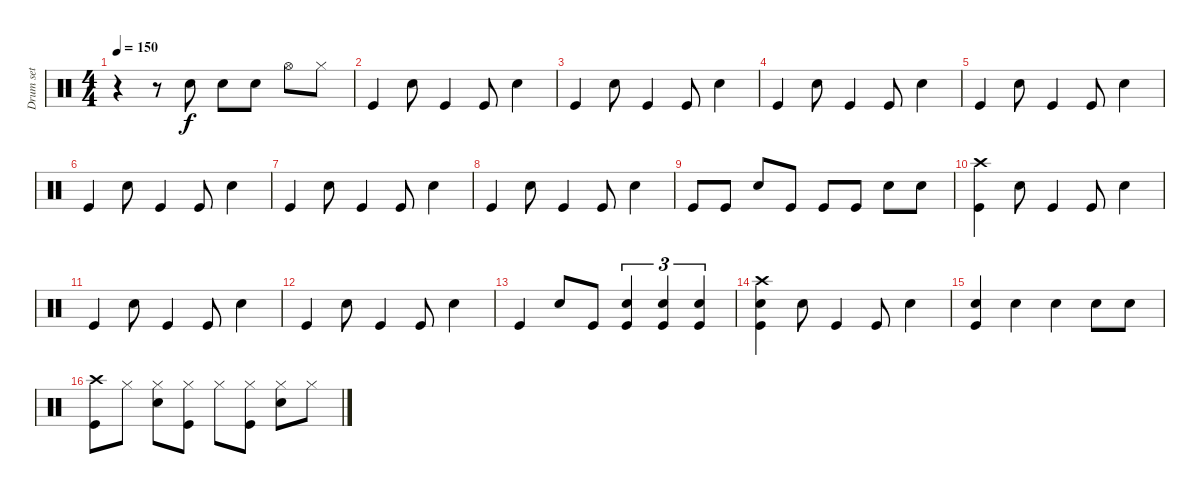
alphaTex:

\track ("Drum set" "Drum set") {instrument percussion}
\staff {score}
\articulation defaults
\ts (4 4)
\tempo 150
\clef neutral
\ks c
r.4{dy f} r.8 "Snare (hit) 2".8 "Snare (hit) 2".8 "Snare (hit) 2".8 "Hi-Hat (open)".8 "Hi-Hat (closed)".8 |
"Kick (hit)".4 "Snare (hit) 2".8 "Kick (hit)".4 "Kick (hit)".8 "Snare (hit) 2".4 |
"Kick (hit)".4 "Snare (hit) 2".8 "Kick (hit)".4 "Kick (hit)".8 "Snare (hit) 2".4 |
"Kick (hit)".4 "Snare (hit) 2".8 "Kick (hit)".4 "Kick (hit)".8 "Snare (hit) 2".4 |
"Kick (hit)".4 "Snare (hit) 2".8 "Kick (hit)".4 "Kick (hit)".8 "Snare (hit) 2".4 |
"Kick (hit)".4 "Snare (hit) 2".8 "Kick (hit)".4 "Kick (hit)".8 "Snare (hit) 2".4 |
"Kick (hit)".4 "Snare (hit) 2".8 "Kick (hit)".4 "Kick (hit)".8 "Snare (hit) 2".4 |
"Kick (hit)".4 "Snare (hit) 2".8 "Kick (hit)".4 "Kick (hit)".8 "Snare (hit) 2".4 |
"Kick (hit)".8 "Kick (hit)".8 "Snare (hit) 2".8 "Kick (hit)".8 "Kick (hit)".8 "Kick (hit)".8 "Snare (hit) 2".8 "Snare (hit) 2".8 |
("Crash high (hit)" "Kick (hit)").4 "Snare (hit) 2".8 "Kick (hit)".4 "Kick (hit)".8 "Snare (hit) 2".4 |
"Kick (hit)".4 "Snare (hit) 2".8 "Kick (hit)".4 "Kick (hit)".8 "Snare (hit) 2".4 |
"Kick (hit)".4 "Snare (hit) 2".8 "Kick (hit)".4 "Kick (hit)".8 "Snare (hit) 2".4 |
"Kick (hit)".4 "Snare (hit) 2".8 "Kick (hit)".8 ("Snare (hit) 2" "Kick (hit)").4{tu (3 2)} ("Snare (hit) 2" "Kick (hit)").4{tu (3 2)} ("Snare (hit) 2" "Kick (hit)").4{tu (3 2)} |
("Crash high (hit)" "Snare (hit) 2" "Kick (hit)").4 "Snare (hit) 2".8 "Kick (hit)".4 "Kick (hit)".8 "Snare (hit) 2".4 |
("Snare (hit) 2" "Kick (hit)").4 "Snare (hit) 2".4 "Snare (hit) 2".4 "Snare (hit) 2".8 "Snare (hit) 2".8 |
("Crash high (hit)" "Kick (hit)").8 "Hi-Hat (closed)".8 ("Hi-Hat (closed)" "Snare (hit) 2").8 ("Hi-Hat (closed)" "Kick (hit)").8 "Hi-Hat (closed)".8 ("Hi-Hat (closed)" "Kick (hit)").8 ("Hi-Hat (closed)" "Snare (hit) 2").8 "Hi-Hat (closed)".8
